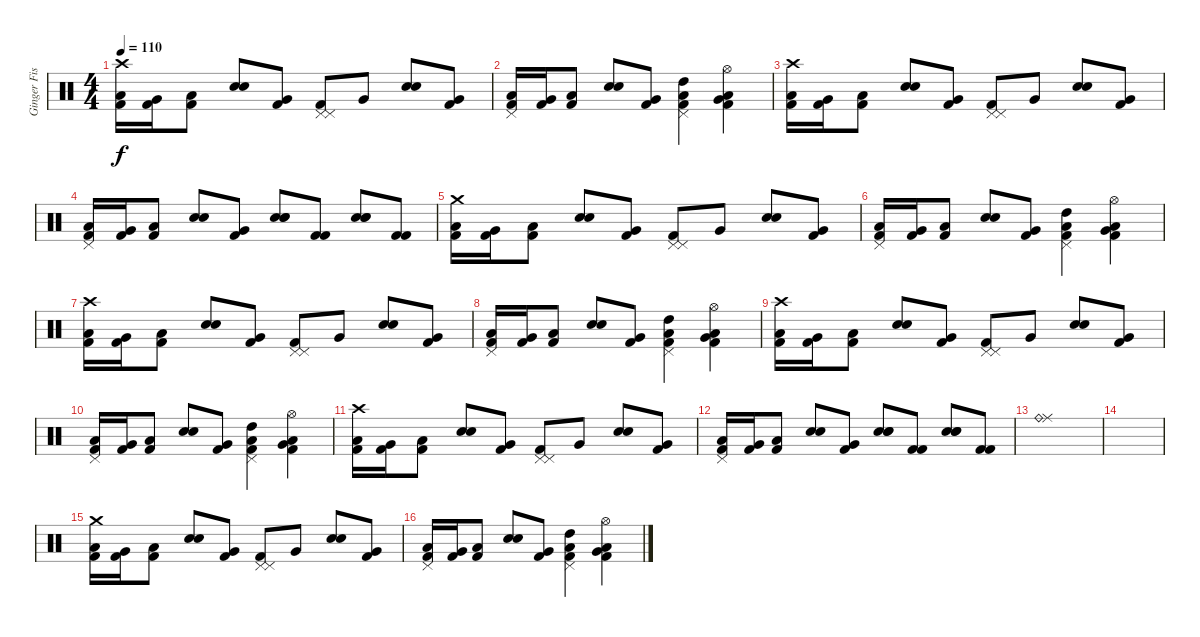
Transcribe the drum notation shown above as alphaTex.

\track ("Ginger Fish" "Ginger Fis") {instrument percussion}
\staff {score}
\articulation defaults
\ts (4 4)
\tempo 110
\clef neutral
\ks c
("Crash high (hit)" "Low Tom (hit)" "Kick (hit) 2").16{dy f} ("Very Low Tom (hit)" "Kick (hit) 2").16 ("Low Tom (hit)" "Kick (hit) 2").8 ("Electric Snare (hit)" "Electric Snare (hit)").8 ("Very Low Tom (hit)" "Kick (hit) 2").8 ("Pedal Hi-Hat (hit)" "Pedal Hi-Hat (hit)" "Kick (hit) 2").8 "Very Low Tom (hit)".8 ("Electric Snare (hit)" "Electric Snare (hit)").8 ("Very Low Tom (hit)" "Kick (hit) 2").8 |
("Pedal Hi-Hat (hit)" "Low Tom (hit)" "Kick (hit) 2").16 ("Very Low Tom (hit)" "Kick (hit) 2").16 ("Low Tom (hit)" "Kick (hit) 2").8 ("Electric Snare (hit)" "Electric Snare (hit)").8 ("Very Low Tom (hit)" "Kick (hit) 2").8 ("Pedal Hi-Hat (hit)" "High Tom (hit)" "Low Tom (hit)" "Kick (hit) 2").4 ("Hi-Hat (open)" "Very Low Tom (hit)" "Low Tom (hit)" "Kick (hit) 2").4 |
("Crash high (hit)" "Low Tom (hit)" "Kick (hit) 2").16 ("Very Low Tom (hit)" "Kick (hit) 2").16 ("Low Tom (hit)" "Kick (hit) 2").8 ("Electric Snare (hit)" "Electric Snare (hit)").8 ("Very Low Tom (hit)" "Kick (hit) 2").8 ("Pedal Hi-Hat (hit)" "Pedal Hi-Hat (hit)" "Kick (hit) 2").8 "Very Low Tom (hit)".8 ("Electric Snare (hit)" "Electric Snare (hit)").8 ("Very Low Tom (hit)" "Kick (hit) 2").8 |
("Pedal Hi-Hat (hit)" "Low Tom (hit)" "Kick (hit) 2").16 ("Very Low Tom (hit)" "Kick (hit) 2").16 ("Low Tom (hit)" "Kick (hit) 2").8 ("Electric Snare (hit)" "Electric Snare (hit)").8 ("Very Low Tom (hit)" "Kick (hit) 2").8 ("Electric Snare (hit)" "Electric Snare (hit)" "Electric Snare (hit)").8 ("Kick (hit) 2" "Kick (hit) 2").8 ("Electric Snare (hit)" "Electric Snare (hit)" "Electric Snare (hit)").8 ("Kick (hit) 2" "Kick (hit) 2").8 |
("Crash medium (hit)" "Low Tom (hit)" "Kick (hit) 2").16 ("Very Low Tom (hit)" "Kick (hit) 2").16 ("Low Tom (hit)" "Kick (hit) 2").8 ("Electric Snare (hit)" "Electric Snare (hit)").8 ("Very Low Tom (hit)" "Kick (hit) 2").8 ("Pedal Hi-Hat (hit)" "Pedal Hi-Hat (hit)" "Kick (hit) 2").8 "Very Low Tom (hit)".8 ("Electric Snare (hit)" "Electric Snare (hit)").8 ("Very Low Tom (hit)" "Kick (hit) 2").8 |
("Pedal Hi-Hat (hit)" "Low Tom (hit)" "Kick (hit) 2").16 ("Very Low Tom (hit)" "Kick (hit) 2").16 ("Low Tom (hit)" "Kick (hit) 2").8 ("Electric Snare (hit)" "Electric Snare (hit)").8 ("Very Low Tom (hit)" "Kick (hit) 2").8 ("Pedal Hi-Hat (hit)" "High Tom (hit)" "Low Tom (hit)" "Kick (hit) 2").4 ("Hi-Hat (open)" "Very Low Tom (hit)" "Low Tom (hit)" "Kick (hit) 2").4 |
("Crash high (hit)" "Low Tom (hit)" "Kick (hit) 2").16 ("Very Low Tom (hit)" "Kick (hit) 2").16 ("Low Tom (hit)" "Kick (hit) 2").8 ("Electric Snare (hit)" "Electric Snare (hit)").8 ("Very Low Tom (hit)" "Kick (hit) 2").8 ("Pedal Hi-Hat (hit)" "Pedal Hi-Hat (hit)" "Kick (hit) 2").8 "Very Low Tom (hit)".8 ("Electric Snare (hit)" "Electric Snare (hit)").8 ("Very Low Tom (hit)" "Kick (hit) 2").8 |
("Pedal Hi-Hat (hit)" "Low Tom (hit)" "Kick (hit) 2").16 ("Very Low Tom (hit)" "Kick (hit) 2").16 ("Low Tom (hit)" "Kick (hit) 2").8 ("Electric Snare (hit)" "Electric Snare (hit)").8 ("Very Low Tom (hit)" "Kick (hit) 2").8 ("Pedal Hi-Hat (hit)" "High Tom (hit)" "Low Tom (hit)" "Kick (hit) 2").4 ("Hi-Hat (open)" "Very Low Tom (hit)" "Low Tom (hit)" "Kick (hit) 2").4 |
("Crash high (hit)" "Low Tom (hit)" "Kick (hit) 2").16 ("Very Low Tom (hit)" "Kick (hit) 2").16 ("Low Tom (hit)" "Kick (hit) 2").8 ("Electric Snare (hit)" "Electric Snare (hit)").8 ("Very Low Tom (hit)" "Kick (hit) 2").8 ("Pedal Hi-Hat (hit)" "Pedal Hi-Hat (hit)" "Kick (hit) 2").8 "Very Low Tom (hit)".8 ("Electric Snare (hit)" "Electric Snare (hit)").8 ("Very Low Tom (hit)" "Kick (hit) 2").8 |
("Pedal Hi-Hat (hit)" "Low Tom (hit)" "Kick (hit) 2").16 ("Very Low Tom (hit)" "Kick (hit) 2").16 ("Low Tom (hit)" "Kick (hit) 2").8 ("Electric Snare (hit)" "Electric Snare (hit)").8 ("Very Low Tom (hit)" "Kick (hit) 2").8 ("Pedal Hi-Hat (hit)" "High Tom (hit)" "Low Tom (hit)" "Kick (hit) 2").4 ("Hi-Hat (open)" "Very Low Tom (hit)" "Low Tom (hit)" "Kick (hit) 2").4 |
("Crash high (hit)" "Low Tom (hit)" "Kick (hit) 2").16 ("Very Low Tom (hit)" "Kick (hit) 2").16 ("Low Tom (hit)" "Kick (hit) 2").8 ("Electric Snare (hit)" "Electric Snare (hit)").8 ("Very Low Tom (hit)" "Kick (hit) 2").8 ("Pedal Hi-Hat (hit)" "Pedal Hi-Hat (hit)" "Kick (hit) 2").8 "Very Low Tom (hit)".8 ("Electric Snare (hit)" "Electric Snare (hit)").8 ("Very Low Tom (hit)" "Kick (hit) 2").8 |
("Pedal Hi-Hat (hit)" "Low Tom (hit)" "Kick (hit) 2").16 ("Very Low Tom (hit)" "Kick (hit) 2").16 ("Low Tom (hit)" "Kick (hit) 2").8 ("Electric Snare (hit)" "Electric Snare (hit)").8 ("Very Low Tom (hit)" "Kick (hit) 2").8 ("Electric Snare (hit)" "Electric Snare (hit)" "Electric Snare (hit)").8 ("Kick (hit) 2" "Kick (hit) 2").8 ("Electric Snare (hit)" "Electric Snare (hit)" "Electric Snare (hit)").8 ("Kick (hit) 2" "Kick (hit) 2").8 |
("Ride (middle)" "Ride (bell)").1 |
|
("Crash medium (hit)" "Low Tom (hit)" "Kick (hit) 2").16 ("Very Low Tom (hit)" "Kick (hit) 2").16 ("Low Tom (hit)" "Kick (hit) 2").8 ("Electric Snare (hit)" "Electric Snare (hit)").8 ("Very Low Tom (hit)" "Kick (hit) 2").8 ("Pedal Hi-Hat (hit)" "Pedal Hi-Hat (hit)" "Kick (hit) 2").8 "Very Low Tom (hit)".8 ("Electric Snare (hit)" "Electric Snare (hit)").8 ("Very Low Tom (hit)" "Kick (hit) 2").8 |
("Pedal Hi-Hat (hit)" "Low Tom (hit)" "Kick (hit) 2").16 ("Very Low Tom (hit)" "Kick (hit) 2").16 ("Low Tom (hit)" "Kick (hit) 2").8 ("Electric Snare (hit)" "Electric Snare (hit)").8 ("Very Low Tom (hit)" "Kick (hit) 2").8 ("Pedal Hi-Hat (hit)" "High Tom (hit)" "Low Tom (hit)" "Kick (hit) 2").4 ("Hi-Hat (open)" "Very Low Tom (hit)" "Low Tom (hit)" "Kick (hit) 2").4
